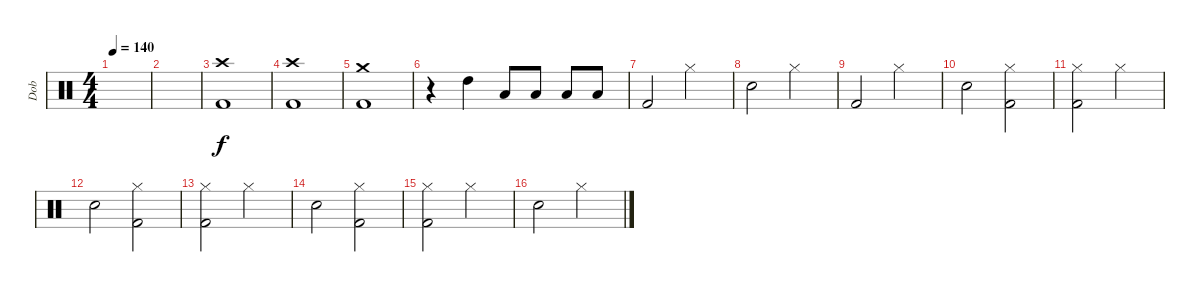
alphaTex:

\track ("Dob" "Dob") {instrument percussion}
\staff {score}
\articulation defaults
\ts (4 4)
\tempo 140
\clef neutral
\ks c
|
|
("Crash high (hit)" "Kick (hit) 2").1 |
("Crash high (hit)" "Kick (hit) 2").1 |
("Crash medium (hit)" "Kick (hit) 2").1 |
r.4 "High Tom (hit)".4 "Low Tom (hit)".8 "Low Tom (hit)".8 "Low Tom (hit)".8 "Low Tom (hit)".8 |
"Kick (hit) 2".2 "Hi-Hat (closed)".2 |
"Electric Snare (hit)".2 "Hi-Hat (closed)".2 |
"Kick (hit) 2".2 "Hi-Hat (closed)".2 |
"Electric Snare (hit)".2 ("Hi-Hat (closed)" "Kick (hit) 2").2 |
("Hi-Hat (closed)" "Kick (hit) 2").2 "Hi-Hat (closed)".2 |
"Electric Snare (hit)".2 ("Hi-Hat (closed)" "Kick (hit) 2").2 |
("Hi-Hat (closed)" "Kick (hit) 2").2 "Hi-Hat (closed)".2 |
"Electric Snare (hit)".2 ("Hi-Hat (closed)" "Kick (hit) 2").2 |
("Hi-Hat (closed)" "Kick (hit) 2").2 "Hi-Hat (closed)".2 |
"Electric Snare (hit)".2 "Hi-Hat (closed)".2
